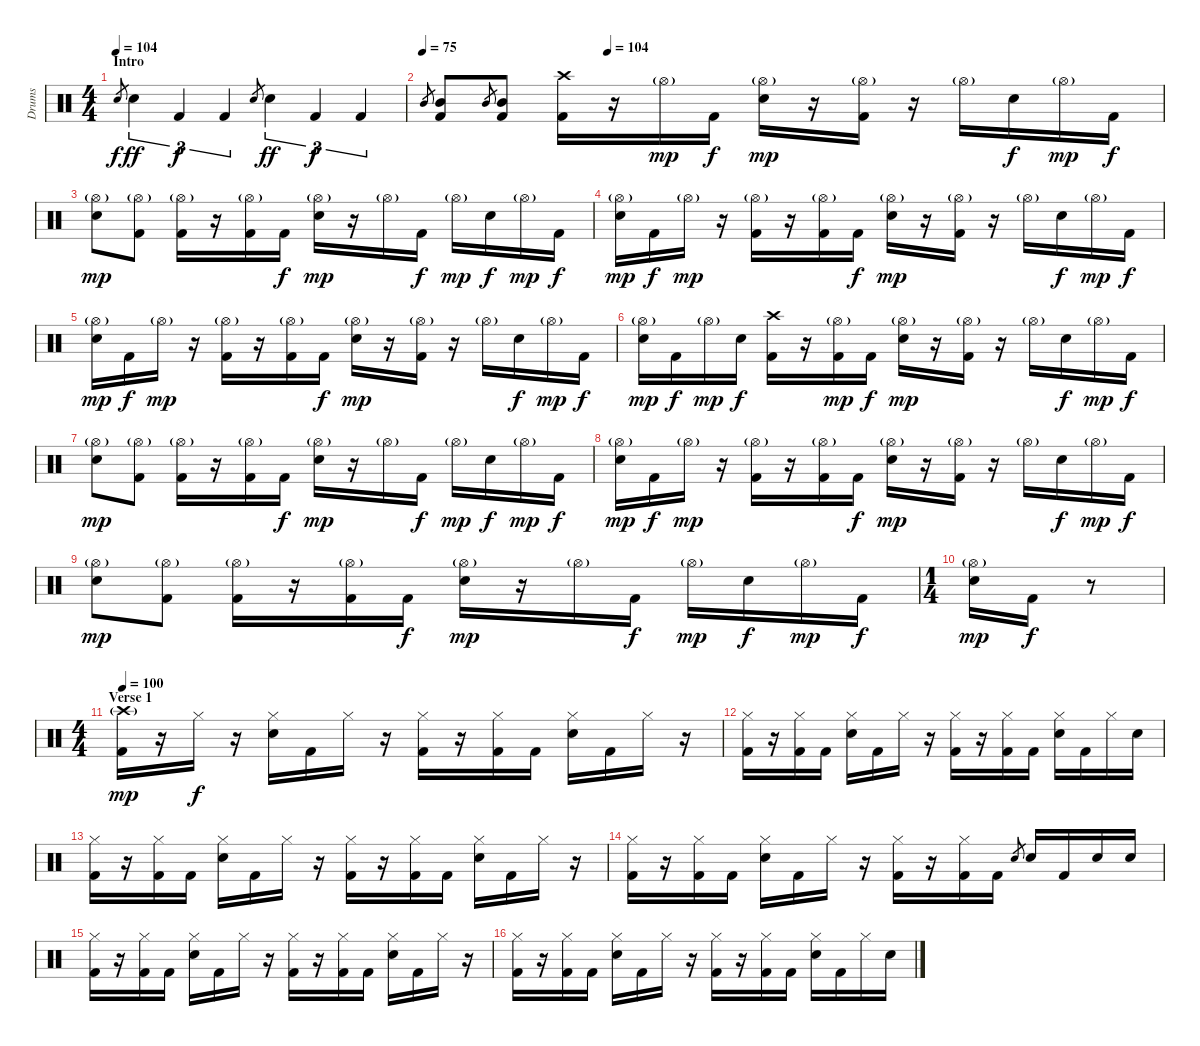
\track ("Drums" "Drums") {instrument percussion}
\staff {score}
\articulation defaults
\ts (4 4)
\section ("" "Intro")
\tempo 104
\tempo 114
\tempo 104
\clef neutral
\ks c "Electric Snare (hit)".8{gr dy f} "Electric Snare (hit)".4{tu (3 2) dy ff} "Kick (hit) 2".4{tu (3 2) dy f} "Kick (hit) 2".4{tu (3 2)} "Electric Snare (hit)".8{gr} "Electric Snare (hit)".4{tu (3 2) dy ff} "Kick (hit) 2".4{tu (3 2) dy f} "Kick (hit) 2".4{tu (3 2)}
|
\tempo 75
\tempo (104 0.25)
"Mid Tom (hit)".8{gr} ("Mid Tom (hit)" "Kick (hit) 2").8 "Mid Tom (hit)".8{gr} ("Mid Tom (hit)" "Kick (hit) 2").8 ("Crash high (hit)" "Kick (hit) 2").16 r.16 "Hi-Hat (open)"{g}.16{dy mp} "Kick (hit) 2".16{dy f} ("Hi-Hat (open)"{g} "Electric Snare (hit)").16{dy mp} r.16 ("Hi-Hat (open)"{g} "Kick (hit) 2").16 r.16 "Hi-Hat (open)"{g}.16 "Electric Snare (hit)".16{dy f} "Hi-Hat (open)"{g}.16{dy mp} "Kick (hit) 2".16{dy f} |
("Hi-Hat (open)"{g} "Electric Snare (hit)").8{dy mp} ("Hi-Hat (open)"{g} "Kick (hit) 2").8 ("Hi-Hat (open)"{g} "Kick (hit) 2").16 r.16 ("Hi-Hat (open)"{g} "Kick (hit) 2").16 "Kick (hit) 2".16{dy f} ("Hi-Hat (open)"{g} "Electric Snare (hit)").16{dy mp} r.16 "Hi-Hat (open)"{g}.16 "Kick (hit) 2".16{dy f} "Hi-Hat (open)"{g}.16{dy mp} "Electric Snare (hit)".16{dy f} "Hi-Hat (open)"{g}.16{dy mp} "Kick (hit) 2".16{dy f} |
("Hi-Hat (open)"{g} "Electric Snare (hit)").16{dy mp} "Kick (hit) 2".16{dy f} "Hi-Hat (open)"{g}.16{dy mp} r.16 ("Hi-Hat (open)"{g} "Kick (hit) 2").16 r.16 ("Hi-Hat (open)"{g} "Kick (hit) 2").16 "Kick (hit) 2".16{dy f} ("Hi-Hat (open)"{g} "Electric Snare (hit)").16{dy mp} r.16 ("Hi-Hat (open)"{g} "Kick (hit) 2").16 r.16 "Hi-Hat (open)"{g}.16 "Electric Snare (hit)".16{dy f} "Hi-Hat (open)"{g}.16{dy mp} "Kick (hit) 2".16{dy f} |
("Hi-Hat (open)"{g} "Electric Snare (hit)").16{dy mp} "Kick (hit) 2".16{dy f} "Hi-Hat (open)"{g}.16{dy mp} r.16 ("Hi-Hat (open)"{g} "Kick (hit) 2").16 r.16 ("Hi-Hat (open)"{g} "Kick (hit) 2").16 "Kick (hit) 2".16{dy f} ("Hi-Hat (open)"{g} "Electric Snare (hit)").16{dy mp} r.16 ("Hi-Hat (open)"{g} "Kick (hit) 2").16 r.16 "Hi-Hat (open)"{g}.16 "Electric Snare (hit)".16{dy f} "Hi-Hat (open)"{g}.16{dy mp} "Kick (hit) 2".16{dy f} |
("Hi-Hat (open)"{g} "Electric Snare (hit)").16{dy mp} "Kick (hit) 2".16{dy f} "Hi-Hat (open)"{g}.16{dy mp} "Electric Snare (hit)".16{dy f} ("Crash high (hit)" "Kick (hit) 2").16 r.16 ("Hi-Hat (open)"{g} "Kick (hit) 2").16{dy mp} "Kick (hit) 2".16{dy f} ("Hi-Hat (open)"{g} "Electric Snare (hit)").16{dy mp} r.16 ("Hi-Hat (open)"{g} "Kick (hit) 2").16 r.16 "Hi-Hat (open)"{g}.16 "Electric Snare (hit)".16{dy f} "Hi-Hat (open)"{g}.16{dy mp} "Kick (hit) 2".16{dy f} |
("Hi-Hat (open)"{g} "Electric Snare (hit)").8{dy mp} ("Hi-Hat (open)"{g} "Kick (hit) 2").8 ("Hi-Hat (open)"{g} "Kick (hit) 2").16 r.16 ("Hi-Hat (open)"{g} "Kick (hit) 2").16 "Kick (hit) 2".16{dy f} ("Hi-Hat (open)"{g} "Electric Snare (hit)").16{dy mp} r.16 "Hi-Hat (open)"{g}.16 "Kick (hit) 2".16{dy f} "Hi-Hat (open)"{g}.16{dy mp} "Electric Snare (hit)".16{dy f} "Hi-Hat (open)"{g}.16{dy mp} "Kick (hit) 2".16{dy f} |
("Hi-Hat (open)"{g} "Electric Snare (hit)").16{dy mp} "Kick (hit) 2".16{dy f} "Hi-Hat (open)"{g}.16{dy mp} r.16 ("Hi-Hat (open)"{g} "Kick (hit) 2").16 r.16 ("Hi-Hat (open)"{g} "Kick (hit) 2").16 "Kick (hit) 2".16{dy f} ("Hi-Hat (open)"{g} "Electric Snare (hit)").16{dy mp} r.16 ("Hi-Hat (open)"{g} "Kick (hit) 2").16 r.16 "Hi-Hat (open)"{g}.16 "Electric Snare (hit)".16{dy f} "Hi-Hat (open)"{g}.16{dy mp} "Kick (hit) 2".16{dy f} |
("Hi-Hat (open)"{g} "Electric Snare (hit)").8{dy mp} ("Hi-Hat (open)"{g} "Kick (hit) 2").8 ("Hi-Hat (open)"{g} "Kick (hit) 2").16 r.16 ("Hi-Hat (open)"{g} "Kick (hit) 2").16 "Kick (hit) 2".16{dy f} ("Hi-Hat (open)"{g} "Electric Snare (hit)").16{dy mp} r.16 "Hi-Hat (open)"{g}.16 "Kick (hit) 2".16{dy f} "Hi-Hat (open)"{g}.16{dy mp} "Electric Snare (hit)".16{dy f} "Hi-Hat (open)"{g}.16{dy mp} "Kick (hit) 2".16{dy f} |
\ts (1 4)
("Hi-Hat (open)"{g} "Electric Snare (hit)").16{dy mp} "Kick (hit) 2".16{dy f} r.8 |
\ts (4 4)
\section ("" "Verse 1")
\tempo 100
("Crash high (hit)"{g} "Kick (hit) 2").16{dy mp} r.16 "Hi-Hat (closed)".16{dy f} r.16 ("Hi-Hat (closed)" "Electric Snare (hit)").16 "Kick (hit) 2".16 "Hi-Hat (closed)".16 r.16 ("Hi-Hat (closed)" "Kick (hit) 2").16 r.16 ("Hi-Hat (closed)" "Kick (hit) 2").16 "Kick (hit) 2".16 ("Hi-Hat (closed)" "Electric Snare (hit)").16 "Kick (hit) 2".16 "Hi-Hat (closed)".16 r.16 |
("Hi-Hat (closed)" "Kick (hit) 2").16 r.16 ("Hi-Hat (closed)" "Kick (hit) 2").16 "Kick (hit) 2".16 ("Hi-Hat (closed)" "Electric Snare (hit)").16 "Kick (hit) 2".16 "Hi-Hat (closed)".16 r.16 ("Hi-Hat (closed)" "Kick (hit) 2").16 r.16 ("Hi-Hat (closed)" "Kick (hit) 2").16 "Kick (hit) 2".16 ("Hi-Hat (closed)" "Electric Snare (hit)").16 "Kick (hit) 2".16 "Hi-Hat (closed)".16 "Electric Snare (hit)".16 |
("Hi-Hat (closed)" "Kick (hit) 2").16 r.16 ("Hi-Hat (closed)" "Kick (hit) 2").16 "Kick (hit) 2".16 ("Hi-Hat (closed)" "Electric Snare (hit)").16 "Kick (hit) 2".16 "Hi-Hat (closed)".16 r.16 ("Hi-Hat (closed)" "Kick (hit) 2").16 r.16 ("Hi-Hat (closed)" "Kick (hit) 2").16 "Kick (hit) 2".16 ("Hi-Hat (closed)" "Electric Snare (hit)").16 "Kick (hit) 2".16 "Hi-Hat (closed)".16 r.16 |
("Hi-Hat (closed)" "Kick (hit) 2").16 r.16 ("Hi-Hat (closed)" "Kick (hit) 2").16 "Kick (hit) 2".16 ("Hi-Hat (closed)" "Electric Snare (hit)").16 "Kick (hit) 2".16 "Hi-Hat (closed)".16 r.16 ("Hi-Hat (closed)" "Kick (hit) 2").16 r.16 ("Hi-Hat (closed)" "Kick (hit) 2").16 "Kick (hit) 2".16 "Electric Snare (hit)".8{gr} "Electric Snare (hit)".16 "Kick (hit) 2".16 "Electric Snare (hit)".16 "Electric Snare (hit)".16 |
("Hi-Hat (closed)" "Kick (hit) 2").16 r.16 ("Hi-Hat (closed)" "Kick (hit) 2").16 "Kick (hit) 2".16 ("Hi-Hat (closed)" "Electric Snare (hit)").16 "Kick (hit) 2".16 "Hi-Hat (closed)".16 r.16 ("Hi-Hat (closed)" "Kick (hit) 2").16 r.16 ("Hi-Hat (closed)" "Kick (hit) 2").16 "Kick (hit) 2".16 ("Hi-Hat (closed)" "Electric Snare (hit)").16 "Kick (hit) 2".16 "Hi-Hat (closed)".16 r.16 |
("Hi-Hat (closed)" "Kick (hit) 2").16 r.16 ("Hi-Hat (closed)" "Kick (hit) 2").16 "Kick (hit) 2".16 ("Hi-Hat (closed)" "Electric Snare (hit)").16 "Kick (hit) 2".16 "Hi-Hat (closed)".16 r.16 ("Hi-Hat (closed)" "Kick (hit) 2").16 r.16 ("Hi-Hat (closed)" "Kick (hit) 2").16 "Kick (hit) 2".16 ("Hi-Hat (closed)" "Electric Snare (hit)").16 "Kick (hit) 2".16 "Hi-Hat (closed)".16 "Electric Snare (hit)".16
